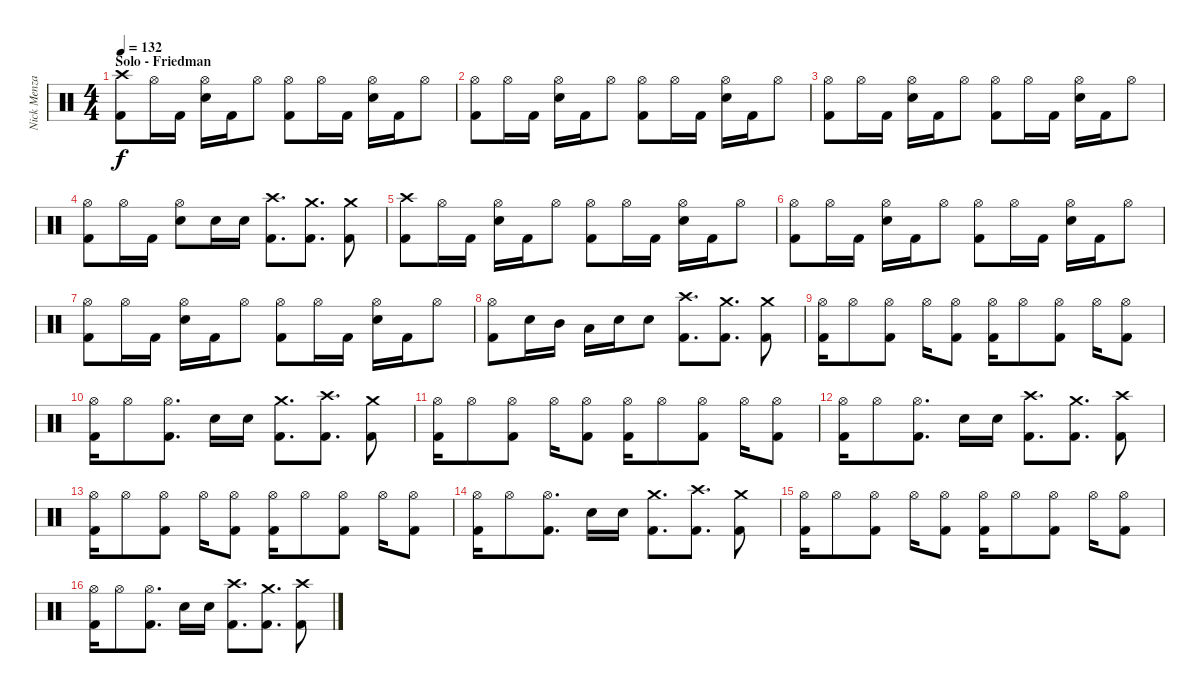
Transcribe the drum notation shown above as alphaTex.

\track ("Nick Menza" "Nick Menza") {instrument percussion}
\staff {score}
\articulation defaults
\ts (4 4)
\section ("" "Solo - Friedman")
\tempo 132
\clef neutral
\ks c
("Crash high (hit)" "Kick (hit) 2").8{dy f} "Hi-Hat (open)".16 "Kick (hit) 2".16 ("Hi-Hat (open)" "Snare (hit) 2").16 "Kick (hit) 2".16 "Hi-Hat (open)".8 ("Hi-Hat (open)" "Kick (hit) 2").8 "Hi-Hat (open)".16 "Kick (hit) 2".16 ("Hi-Hat (open)" "Snare (hit) 2").16 "Kick (hit) 2".16 "Hi-Hat (open)".8 |
("Hi-Hat (open)" "Kick (hit) 2").8 "Hi-Hat (open)".16 "Kick (hit) 2".16 ("Hi-Hat (open)" "Snare (hit) 2").16 "Kick (hit) 2".16 "Hi-Hat (open)".8 ("Hi-Hat (open)" "Kick (hit) 2").8 "Hi-Hat (open)".16 "Kick (hit) 2".16 ("Hi-Hat (open)" "Snare (hit) 2").16 "Kick (hit) 2".16 "Hi-Hat (open)".8 |
("Hi-Hat (open)" "Kick (hit) 2").8 "Hi-Hat (open)".16 "Kick (hit) 2".16 ("Hi-Hat (open)" "Snare (hit) 2").16 "Kick (hit) 2".16 "Hi-Hat (open)".8 ("Hi-Hat (open)" "Kick (hit) 2").8 "Hi-Hat (open)".16 "Kick (hit) 2".16 ("Hi-Hat (open)" "Snare (hit) 2").16 "Kick (hit) 2".16 "Hi-Hat (open)".8 |
("Hi-Hat (open)" "Kick (hit) 2").8 "Hi-Hat (open)".16 "Kick (hit) 2".16 ("Hi-Hat (open)" "Snare (hit) 2").8 "Snare (hit) 2".16 "Snare (hit) 2".16 ("Crash high (hit)" "Kick (hit) 2").8{d} ("Crash medium (hit)" "Kick (hit) 2").8{d} ("Crash medium (hit)" "Kick (hit) 2").8 |
("Crash high (hit)" "Kick (hit) 2").8 "Hi-Hat (open)".16 "Kick (hit) 2".16 ("Hi-Hat (open)" "Snare (hit) 2").16 "Kick (hit) 2".16 "Hi-Hat (open)".8 ("Hi-Hat (open)" "Kick (hit) 2").8 "Hi-Hat (open)".16 "Kick (hit) 2".16 ("Hi-Hat (open)" "Snare (hit) 2").16 "Kick (hit) 2".16 "Hi-Hat (open)".8 |
("Hi-Hat (open)" "Kick (hit) 2").8 "Hi-Hat (open)".16 "Kick (hit) 2".16 ("Hi-Hat (open)" "Snare (hit) 2").16 "Kick (hit) 2".16 "Hi-Hat (open)".8 ("Hi-Hat (open)" "Kick (hit) 2").8 "Hi-Hat (open)".16 "Kick (hit) 2".16 ("Hi-Hat (open)" "Snare (hit) 2").16 "Kick (hit) 2".16 "Hi-Hat (open)".8 |
("Hi-Hat (open)" "Kick (hit) 2").8 "Hi-Hat (open)".16 "Kick (hit) 2".16 ("Hi-Hat (open)" "Snare (hit) 2").16 "Kick (hit) 2".16 "Hi-Hat (open)".8 ("Hi-Hat (open)" "Kick (hit) 2").8 "Hi-Hat (open)".16 "Kick (hit) 2".16 ("Hi-Hat (open)" "Snare (hit) 2").16 "Kick (hit) 2".16 "Hi-Hat (open)".8 |
("Hi-Hat (open)" "Kick (hit) 2").8 "Snare (hit) 2".16 "Mid Tom (hit)".16 "Low Tom (hit)".16 "Snare (hit) 2".16 "Snare (hit) 2".8 ("Crash high (hit)" "Kick (hit) 2").8{d} ("Crash medium (hit)" "Kick (hit) 2").8{d} ("Crash medium (hit)" "Kick (hit) 2").8 |
("Hi-Hat (open)" "Kick (hit) 2").16 "Hi-Hat (open)".8 ("Hi-Hat (open)" "Kick (hit) 2").8 "Hi-Hat (open)".16 ("Hi-Hat (open)" "Kick (hit) 2").8 ("Hi-Hat (open)" "Kick (hit) 2").16 "Hi-Hat (open)".8 ("Hi-Hat (open)" "Kick (hit) 2").8 "Hi-Hat (open)".16 ("Hi-Hat (open)" "Kick (hit) 2").8 |
("Hi-Hat (open)" "Kick (hit) 2").16 "Hi-Hat (open)".8 ("Hi-Hat (open)" "Kick (hit) 2").8{d} "Snare (hit) 2".16 "Snare (hit) 2".16 ("Crash medium (hit)" "Kick (hit) 2").8{d} ("Crash high (hit)" "Kick (hit) 2").8{d} ("Crash medium (hit)" "Kick (hit) 2").8 |
("Hi-Hat (open)" "Kick (hit) 2").16 "Hi-Hat (open)".8 ("Hi-Hat (open)" "Kick (hit) 2").8 "Hi-Hat (open)".16 ("Hi-Hat (open)" "Kick (hit) 2").8 ("Hi-Hat (open)" "Kick (hit) 2").16 "Hi-Hat (open)".8 ("Hi-Hat (open)" "Kick (hit) 2").8 "Hi-Hat (open)".16 ("Hi-Hat (open)" "Kick (hit) 2").8 |
("Hi-Hat (open)" "Kick (hit) 2").16 "Hi-Hat (open)".8 ("Hi-Hat (open)" "Kick (hit) 2").8{d} "Snare (hit) 2".16 "Snare (hit) 2".16 ("Crash high (hit)" "Kick (hit) 2").8{d} ("Crash medium (hit)" "Kick (hit) 2").8{d} ("Crash high (hit)" "Kick (hit) 2").8 |
("Hi-Hat (open)" "Kick (hit) 2").16 "Hi-Hat (open)".8 ("Hi-Hat (open)" "Kick (hit) 2").8 "Hi-Hat (open)".16 ("Hi-Hat (open)" "Kick (hit) 2").8 ("Hi-Hat (open)" "Kick (hit) 2").16 "Hi-Hat (open)".8 ("Hi-Hat (open)" "Kick (hit) 2").8 "Hi-Hat (open)".16 ("Hi-Hat (open)" "Kick (hit) 2").8 |
("Hi-Hat (open)" "Kick (hit) 2").16 "Hi-Hat (open)".8 ("Hi-Hat (open)" "Kick (hit) 2").8{d} "Snare (hit) 2".16 "Snare (hit) 2".16 ("Crash medium (hit)" "Kick (hit) 2").8{d} ("Crash high (hit)" "Kick (hit) 2").8{d} ("Crash medium (hit)" "Kick (hit) 2").8 |
("Hi-Hat (open)" "Kick (hit) 2").16 "Hi-Hat (open)".8 ("Hi-Hat (open)" "Kick (hit) 2").8 "Hi-Hat (open)".16 ("Hi-Hat (open)" "Kick (hit) 2").8 ("Hi-Hat (open)" "Kick (hit) 2").16 "Hi-Hat (open)".8 ("Hi-Hat (open)" "Kick (hit) 2").8 "Hi-Hat (open)".16 ("Hi-Hat (open)" "Kick (hit) 2").8 |
("Hi-Hat (open)" "Kick (hit) 2").16 "Hi-Hat (open)".8 ("Hi-Hat (open)" "Kick (hit) 2").8{d} "Snare (hit) 2".16 "Snare (hit) 2".16 ("Crash high (hit)" "Kick (hit) 2").8{d} ("Crash medium (hit)" "Kick (hit) 2").8{d} ("Crash high (hit)" "Kick (hit) 2").8
